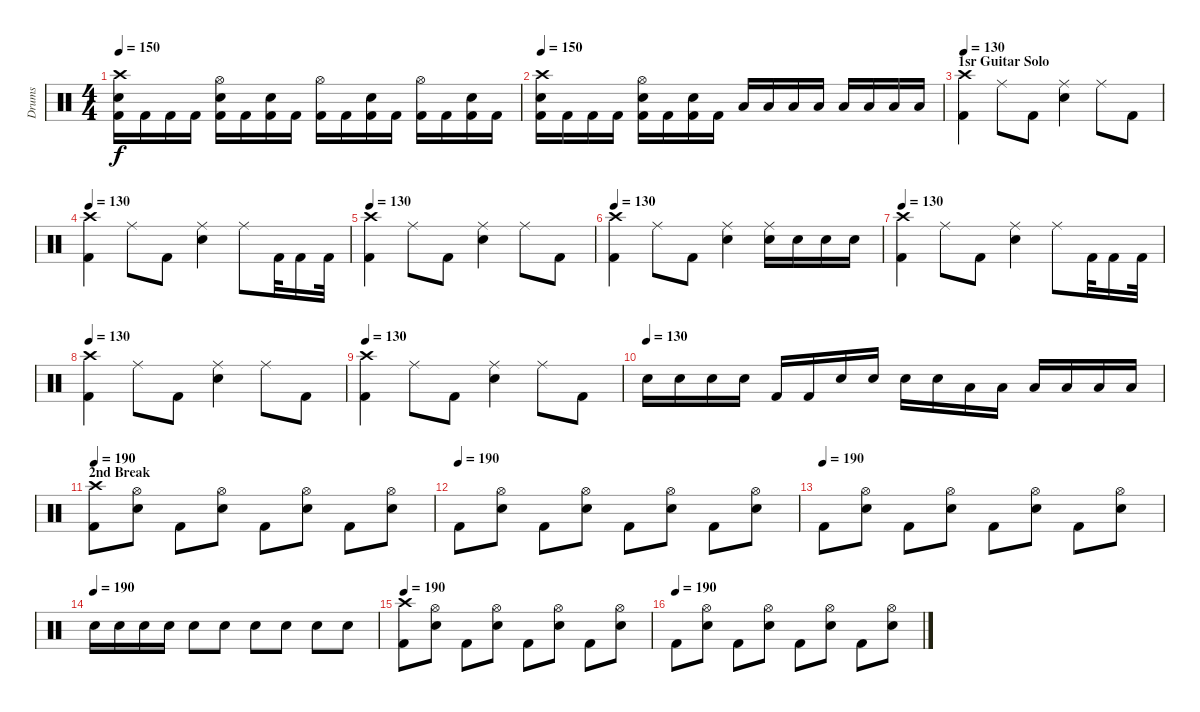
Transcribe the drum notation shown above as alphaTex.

\track ("Drums" "Drums") {instrument percussion}
\staff {score}
\articulation defaults
\ts (4 4)
\tempo 150
\clef neutral
\ks c
("Crash high (hit)" "Snare (hit) 2" "Kick (hit) 2").16{dy f} "Kick (hit) 2".16 "Kick (hit) 2".16 "Kick (hit) 2".16 ("Hi-Hat (open)" "Snare (hit) 2" "Kick (hit) 2").16 "Kick (hit) 2".16 ("Snare (hit) 2" "Kick (hit) 2").16 "Kick (hit) 2".16 ("Hi-Hat (open)" "Kick (hit) 2").16 "Kick (hit) 2".16 ("Snare (hit) 2" "Kick (hit) 2").16 "Kick (hit) 2".16 ("Hi-Hat (open)" "Kick (hit) 2").16 "Kick (hit) 2".16 ("Snare (hit) 2" "Kick (hit) 2").16 "Kick (hit) 2".16 |
\tempo 150
("Crash high (hit)" "Snare (hit) 2" "Kick (hit) 2").16 "Kick (hit) 2".16 "Kick (hit) 2".16 "Kick (hit) 2".16 ("Hi-Hat (open)" "Snare (hit) 2" "Kick (hit) 2").16 "Kick (hit) 2".16 ("Snare (hit) 2" "Kick (hit) 2").16 "Kick (hit) 2".16 "Low Tom (hit)".16 "Low Tom (hit)".16 "Low Tom (hit)".16 "Low Tom (hit)".16 "Low Floor Tom (hit)".16 "Low Floor Tom (hit)".16 "Low Floor Tom (hit)".16 "Low Floor Tom (hit)".16 |
\section ("" "1sr Guitar Solo")
\tempo 130
("Crash high (hit)" "Kick (hit) 2").4 "Ride (middle)".8 "Kick (hit) 2".8 ("Ride (middle)" "Snare (hit) 2").4 "Ride (middle)".8 "Kick (hit) 2".8 |
\tempo 130
("Crash high (hit)" "Kick (hit) 2").4 "Ride (middle)".8 "Kick (hit) 2".8 ("Ride (middle)" "Snare (hit) 2").4 "Ride (middle)".8 "Kick (hit) 2".32 "Kick (hit) 2".16 "Kick (hit) 2".32 |
\tempo 130
("Crash high (hit)" "Kick (hit) 2").4 "Ride (middle)".8 "Kick (hit) 2".8 ("Ride (middle)" "Snare (hit) 2").4 "Ride (middle)".8 "Kick (hit) 2".8 |
\tempo 130
("Crash high (hit)" "Kick (hit) 2").4 "Ride (middle)".8 "Kick (hit) 2".8 ("Ride (middle)" "Snare (hit) 2").4 ("Ride (middle)" "Snare (hit) 2").16 "Snare (hit) 2".16 "Snare (hit) 2".16 "Snare (hit) 2".16 |
\tempo 130
("Crash high (hit)" "Kick (hit) 2").4 "Ride (middle)".8 "Kick (hit) 2".8 ("Ride (middle)" "Snare (hit) 2").4 "Ride (middle)".8 "Kick (hit) 2".32 "Kick (hit) 2".16 "Kick (hit) 2".32 |
\tempo 130
("Crash high (hit)" "Kick (hit) 2").4 "Ride (middle)".8 "Kick (hit) 2".8 ("Ride (middle)" "Snare (hit) 2").4 "Ride (middle)".8 "Kick (hit) 2".8 |
\tempo 130
("Crash high (hit)" "Kick (hit) 2").4 "Ride (middle)".8 "Kick (hit) 2".8 ("Ride (middle)" "Snare (hit) 2").4 "Ride (middle)".8 "Kick (hit) 2".8 |
\tempo (130)
"Snare (hit) 2".16 "Snare (hit) 2".16 "Snare (hit) 2".16 "Snare (hit) 2".16 "Kick (hit) 2".16 "Kick (hit) 2".16 "Snare (hit) 2".16 "Snare (hit) 2".16 "Snare (hit) 2".16 "Snare (hit) 2".16 "Low Tom (hit)".16 "Low Tom (hit)".16 "Low Tom (hit)".16 "Low Floor Tom (hit)".16 "Low Floor Tom (hit)".16 "Low Floor Tom (hit)".16 |
\section ("" "2nd Break")
\tempo 190
("Crash high (hit)" "Kick (hit) 2").8 ("Hi-Hat (open)" "Snare (hit) 2").8 "Kick (hit) 2".8 ("Hi-Hat (open)" "Snare (hit) 2").8 "Kick (hit) 2".8 ("Hi-Hat (open)" "Snare (hit) 2").8 "Kick (hit) 2".8 ("Hi-Hat (open)" "Snare (hit) 2").8 |
\tempo (190)
"Kick (hit) 2".8 ("Hi-Hat (open)" "Snare (hit) 2").8 "Kick (hit) 2".8 ("Hi-Hat (open)" "Snare (hit) 2").8 "Kick (hit) 2".8 ("Hi-Hat (open)" "Snare (hit) 2").8 "Kick (hit) 2".8 ("Hi-Hat (open)" "Snare (hit) 2").8 |
\tempo (190)
"Kick (hit) 2".8 ("Hi-Hat (open)" "Snare (hit) 2").8 "Kick (hit) 2".8 ("Hi-Hat (open)" "Snare (hit) 2").8 "Kick (hit) 2".8 ("Hi-Hat (open)" "Snare (hit) 2").8 "Kick (hit) 2".8 ("Hi-Hat (open)" "Snare (hit) 2").8 |
\tempo (190)
"Snare (hit) 2".16 "Snare (hit) 2".16 "Snare (hit) 2".16 "Snare (hit) 2".16 "Snare (hit) 2".8 "Snare (hit) 2".8 "Snare (hit) 2".8 "Snare (hit) 2".8 "Snare (hit) 2".8 "Snare (hit) 2".8 |
\tempo 190
("Crash high (hit)" "Kick (hit) 2").8 ("Hi-Hat (open)" "Snare (hit) 2").8 "Kick (hit) 2".8 ("Hi-Hat (open)" "Snare (hit) 2").8 "Kick (hit) 2".8 ("Hi-Hat (open)" "Snare (hit) 2").8 "Kick (hit) 2".8 ("Hi-Hat (open)" "Snare (hit) 2").8 |
\tempo (190)
"Kick (hit) 2".8 ("Hi-Hat (open)" "Snare (hit) 2").8 "Kick (hit) 2".8 ("Hi-Hat (open)" "Snare (hit) 2").8 "Kick (hit) 2".8 ("Hi-Hat (open)" "Snare (hit) 2").8 "Kick (hit) 2".8 ("Hi-Hat (open)" "Snare (hit) 2").8
